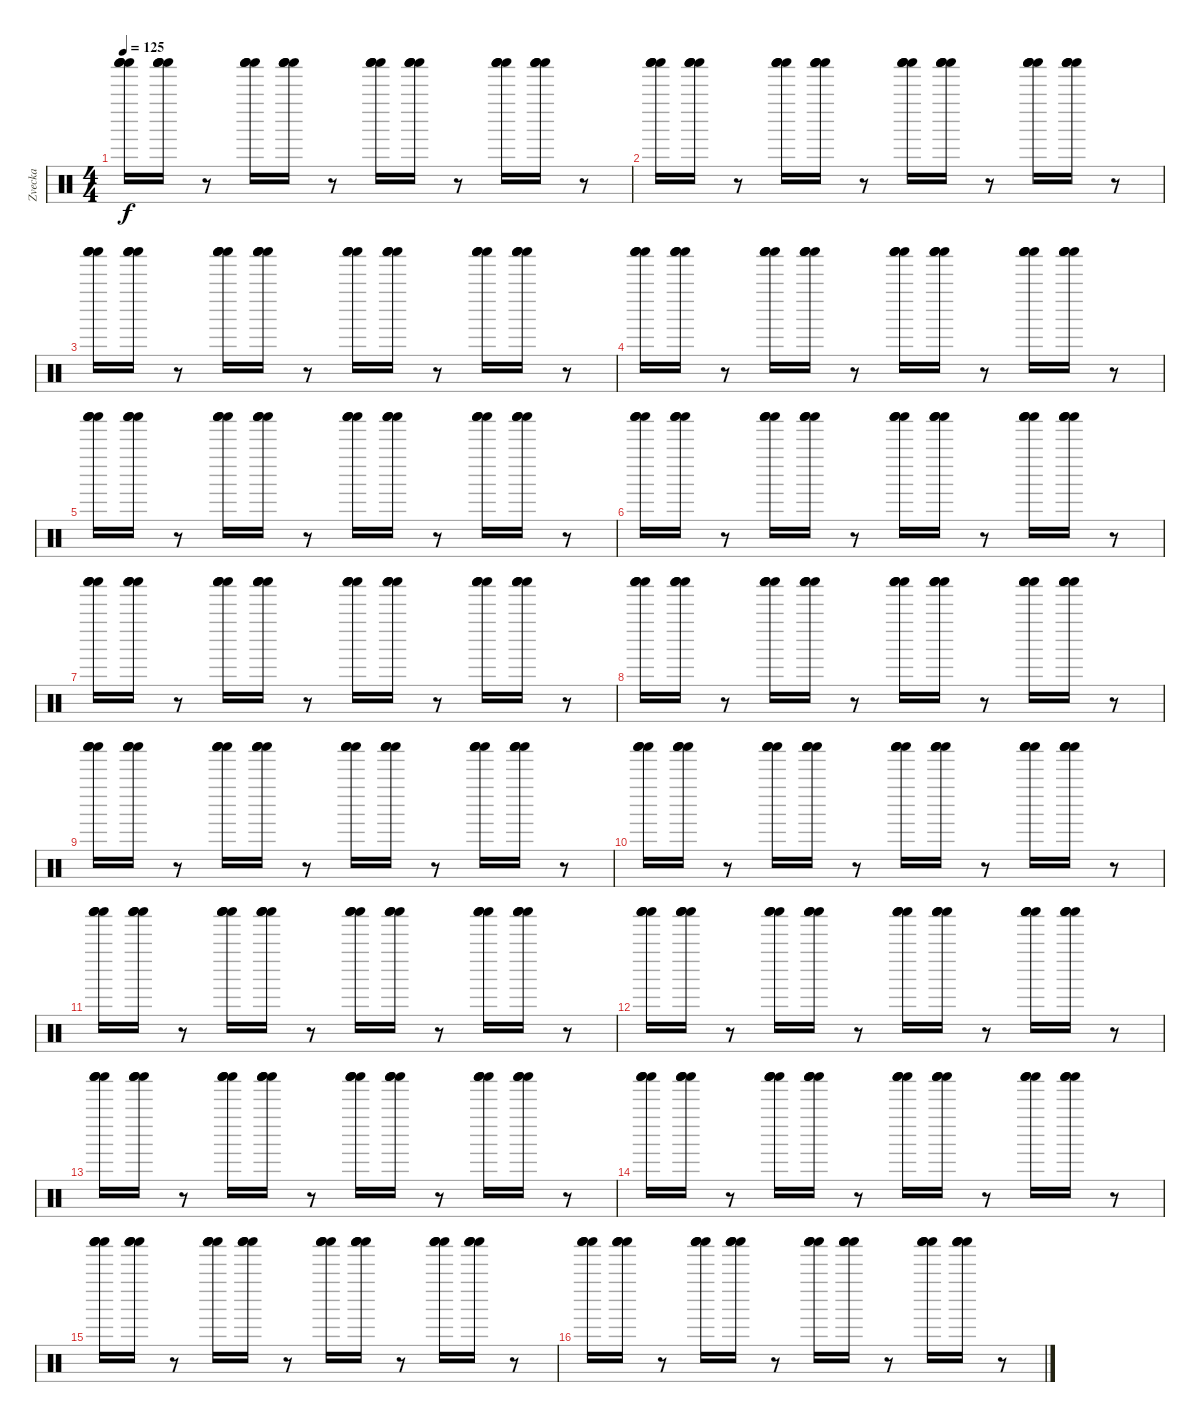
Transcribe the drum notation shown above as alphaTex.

\track ("Zvecka " "Zvecka ") {instrument percussion}
\staff {score}
\articulation defaults
\ts (4 4)
\tempo 125
\clef neutral
\ks c
("Shaker (hit)" "Shaker (hit)" "Shaker (hit)" "Shaker (hit)").16{dy f} ("Shaker (hit)" "Shaker (hit)" "Shaker (hit)" "Shaker (hit)").16 r.8 ("Shaker (hit)" "Shaker (hit)" "Shaker (hit)" "Shaker (hit)").16 ("Shaker (hit)" "Shaker (hit)" "Shaker (hit)" "Shaker (hit)").16 r.8 ("Shaker (hit)" "Shaker (hit)" "Shaker (hit)" "Shaker (hit)").16 ("Shaker (hit)" "Shaker (hit)" "Shaker (hit)" "Shaker (hit)").16 r.8 ("Shaker (hit)" "Shaker (hit)" "Shaker (hit)" "Shaker (hit)").16 ("Shaker (hit)" "Shaker (hit)" "Shaker (hit)" "Shaker (hit)").16 r.8 |
("Shaker (hit)" "Shaker (hit)" "Shaker (hit)" "Shaker (hit)").16 ("Shaker (hit)" "Shaker (hit)" "Shaker (hit)" "Shaker (hit)").16 r.8 ("Shaker (hit)" "Shaker (hit)" "Shaker (hit)" "Shaker (hit)").16 ("Shaker (hit)" "Shaker (hit)" "Shaker (hit)" "Shaker (hit)").16 r.8 ("Shaker (hit)" "Shaker (hit)" "Shaker (hit)" "Shaker (hit)").16 ("Shaker (hit)" "Shaker (hit)" "Shaker (hit)" "Shaker (hit)").16 r.8 ("Shaker (hit)" "Shaker (hit)" "Shaker (hit)" "Shaker (hit)").16 ("Shaker (hit)" "Shaker (hit)" "Shaker (hit)" "Shaker (hit)").16 r.8 |
("Shaker (hit)" "Shaker (hit)" "Shaker (hit)" "Shaker (hit)").16 ("Shaker (hit)" "Shaker (hit)" "Shaker (hit)" "Shaker (hit)").16 r.8 ("Shaker (hit)" "Shaker (hit)" "Shaker (hit)" "Shaker (hit)").16 ("Shaker (hit)" "Shaker (hit)" "Shaker (hit)" "Shaker (hit)").16 r.8 ("Shaker (hit)" "Shaker (hit)" "Shaker (hit)" "Shaker (hit)").16 ("Shaker (hit)" "Shaker (hit)" "Shaker (hit)" "Shaker (hit)").16 r.8 ("Shaker (hit)" "Shaker (hit)" "Shaker (hit)" "Shaker (hit)").16 ("Shaker (hit)" "Shaker (hit)" "Shaker (hit)" "Shaker (hit)").16 r.8 |
("Shaker (hit)" "Shaker (hit)" "Shaker (hit)" "Shaker (hit)").16 ("Shaker (hit)" "Shaker (hit)" "Shaker (hit)" "Shaker (hit)").16 r.8 ("Shaker (hit)" "Shaker (hit)" "Shaker (hit)" "Shaker (hit)").16 ("Shaker (hit)" "Shaker (hit)" "Shaker (hit)" "Shaker (hit)").16 r.8 ("Shaker (hit)" "Shaker (hit)" "Shaker (hit)" "Shaker (hit)").16 ("Shaker (hit)" "Shaker (hit)" "Shaker (hit)" "Shaker (hit)").16 r.8 ("Shaker (hit)" "Shaker (hit)" "Shaker (hit)" "Shaker (hit)").16 ("Shaker (hit)" "Shaker (hit)" "Shaker (hit)" "Shaker (hit)").16 r.8 |
("Shaker (hit)" "Shaker (hit)" "Shaker (hit)" "Shaker (hit)").16 ("Shaker (hit)" "Shaker (hit)" "Shaker (hit)" "Shaker (hit)").16 r.8 ("Shaker (hit)" "Shaker (hit)" "Shaker (hit)" "Shaker (hit)").16 ("Shaker (hit)" "Shaker (hit)" "Shaker (hit)" "Shaker (hit)").16 r.8 ("Shaker (hit)" "Shaker (hit)" "Shaker (hit)" "Shaker (hit)").16 ("Shaker (hit)" "Shaker (hit)" "Shaker (hit)" "Shaker (hit)").16 r.8 ("Shaker (hit)" "Shaker (hit)" "Shaker (hit)" "Shaker (hit)").16 ("Shaker (hit)" "Shaker (hit)" "Shaker (hit)" "Shaker (hit)").16 r.8 |
("Shaker (hit)" "Shaker (hit)" "Shaker (hit)" "Shaker (hit)").16 ("Shaker (hit)" "Shaker (hit)" "Shaker (hit)" "Shaker (hit)").16 r.8 ("Shaker (hit)" "Shaker (hit)" "Shaker (hit)" "Shaker (hit)").16 ("Shaker (hit)" "Shaker (hit)" "Shaker (hit)" "Shaker (hit)").16 r.8 ("Shaker (hit)" "Shaker (hit)" "Shaker (hit)" "Shaker (hit)").16 ("Shaker (hit)" "Shaker (hit)" "Shaker (hit)" "Shaker (hit)").16 r.8 ("Shaker (hit)" "Shaker (hit)" "Shaker (hit)" "Shaker (hit)").16 ("Shaker (hit)" "Shaker (hit)" "Shaker (hit)" "Shaker (hit)").16 r.8 |
("Shaker (hit)" "Shaker (hit)" "Shaker (hit)" "Shaker (hit)").16 ("Shaker (hit)" "Shaker (hit)" "Shaker (hit)" "Shaker (hit)").16 r.8 ("Shaker (hit)" "Shaker (hit)" "Shaker (hit)" "Shaker (hit)").16 ("Shaker (hit)" "Shaker (hit)" "Shaker (hit)" "Shaker (hit)").16 r.8 ("Shaker (hit)" "Shaker (hit)" "Shaker (hit)" "Shaker (hit)").16 ("Shaker (hit)" "Shaker (hit)" "Shaker (hit)" "Shaker (hit)").16 r.8 ("Shaker (hit)" "Shaker (hit)" "Shaker (hit)" "Shaker (hit)").16 ("Shaker (hit)" "Shaker (hit)" "Shaker (hit)" "Shaker (hit)").16 r.8 |
("Shaker (hit)" "Shaker (hit)" "Shaker (hit)" "Shaker (hit)").16 ("Shaker (hit)" "Shaker (hit)" "Shaker (hit)" "Shaker (hit)").16 r.8 ("Shaker (hit)" "Shaker (hit)" "Shaker (hit)" "Shaker (hit)").16 ("Shaker (hit)" "Shaker (hit)" "Shaker (hit)" "Shaker (hit)").16 r.8 ("Shaker (hit)" "Shaker (hit)" "Shaker (hit)" "Shaker (hit)").16 ("Shaker (hit)" "Shaker (hit)" "Shaker (hit)" "Shaker (hit)").16 r.8 ("Shaker (hit)" "Shaker (hit)" "Shaker (hit)" "Shaker (hit)").16 ("Shaker (hit)" "Shaker (hit)" "Shaker (hit)" "Shaker (hit)").16 r.8 |
("Shaker (hit)" "Shaker (hit)" "Shaker (hit)" "Shaker (hit)").16 ("Shaker (hit)" "Shaker (hit)" "Shaker (hit)" "Shaker (hit)").16 r.8 ("Shaker (hit)" "Shaker (hit)" "Shaker (hit)" "Shaker (hit)").16 ("Shaker (hit)" "Shaker (hit)" "Shaker (hit)" "Shaker (hit)").16 r.8 ("Shaker (hit)" "Shaker (hit)" "Shaker (hit)" "Shaker (hit)").16 ("Shaker (hit)" "Shaker (hit)" "Shaker (hit)" "Shaker (hit)").16 r.8 ("Shaker (hit)" "Shaker (hit)" "Shaker (hit)" "Shaker (hit)").16 ("Shaker (hit)" "Shaker (hit)" "Shaker (hit)" "Shaker (hit)").16 r.8 |
("Shaker (hit)" "Shaker (hit)" "Shaker (hit)" "Shaker (hit)").16 ("Shaker (hit)" "Shaker (hit)" "Shaker (hit)" "Shaker (hit)").16 r.8 ("Shaker (hit)" "Shaker (hit)" "Shaker (hit)" "Shaker (hit)").16 ("Shaker (hit)" "Shaker (hit)" "Shaker (hit)" "Shaker (hit)").16 r.8 ("Shaker (hit)" "Shaker (hit)" "Shaker (hit)" "Shaker (hit)").16 ("Shaker (hit)" "Shaker (hit)" "Shaker (hit)" "Shaker (hit)").16 r.8 ("Shaker (hit)" "Shaker (hit)" "Shaker (hit)" "Shaker (hit)").16 ("Shaker (hit)" "Shaker (hit)" "Shaker (hit)" "Shaker (hit)").16 r.8 |
("Shaker (hit)" "Shaker (hit)" "Shaker (hit)" "Shaker (hit)").16 ("Shaker (hit)" "Shaker (hit)" "Shaker (hit)" "Shaker (hit)").16 r.8 ("Shaker (hit)" "Shaker (hit)" "Shaker (hit)" "Shaker (hit)").16 ("Shaker (hit)" "Shaker (hit)" "Shaker (hit)" "Shaker (hit)").16 r.8 ("Shaker (hit)" "Shaker (hit)" "Shaker (hit)" "Shaker (hit)").16 ("Shaker (hit)" "Shaker (hit)" "Shaker (hit)" "Shaker (hit)").16 r.8 ("Shaker (hit)" "Shaker (hit)" "Shaker (hit)" "Shaker (hit)").16 ("Shaker (hit)" "Shaker (hit)" "Shaker (hit)" "Shaker (hit)").16 r.8 |
("Shaker (hit)" "Shaker (hit)" "Shaker (hit)" "Shaker (hit)").16 ("Shaker (hit)" "Shaker (hit)" "Shaker (hit)" "Shaker (hit)").16 r.8 ("Shaker (hit)" "Shaker (hit)" "Shaker (hit)" "Shaker (hit)").16 ("Shaker (hit)" "Shaker (hit)" "Shaker (hit)" "Shaker (hit)").16 r.8 ("Shaker (hit)" "Shaker (hit)" "Shaker (hit)" "Shaker (hit)").16 ("Shaker (hit)" "Shaker (hit)" "Shaker (hit)" "Shaker (hit)").16 r.8 ("Shaker (hit)" "Shaker (hit)" "Shaker (hit)" "Shaker (hit)").16 ("Shaker (hit)" "Shaker (hit)" "Shaker (hit)" "Shaker (hit)").16 r.8 |
("Shaker (hit)" "Shaker (hit)" "Shaker (hit)" "Shaker (hit)").16 ("Shaker (hit)" "Shaker (hit)" "Shaker (hit)" "Shaker (hit)").16 r.8 ("Shaker (hit)" "Shaker (hit)" "Shaker (hit)" "Shaker (hit)").16 ("Shaker (hit)" "Shaker (hit)" "Shaker (hit)" "Shaker (hit)").16 r.8 ("Shaker (hit)" "Shaker (hit)" "Shaker (hit)" "Shaker (hit)").16 ("Shaker (hit)" "Shaker (hit)" "Shaker (hit)" "Shaker (hit)").16 r.8 ("Shaker (hit)" "Shaker (hit)" "Shaker (hit)" "Shaker (hit)").16 ("Shaker (hit)" "Shaker (hit)" "Shaker (hit)" "Shaker (hit)").16 r.8 |
("Shaker (hit)" "Shaker (hit)" "Shaker (hit)" "Shaker (hit)").16 ("Shaker (hit)" "Shaker (hit)" "Shaker (hit)" "Shaker (hit)").16 r.8 ("Shaker (hit)" "Shaker (hit)" "Shaker (hit)" "Shaker (hit)").16 ("Shaker (hit)" "Shaker (hit)" "Shaker (hit)" "Shaker (hit)").16 r.8 ("Shaker (hit)" "Shaker (hit)" "Shaker (hit)" "Shaker (hit)").16 ("Shaker (hit)" "Shaker (hit)" "Shaker (hit)" "Shaker (hit)").16 r.8 ("Shaker (hit)" "Shaker (hit)" "Shaker (hit)" "Shaker (hit)").16 ("Shaker (hit)" "Shaker (hit)" "Shaker (hit)" "Shaker (hit)").16 r.8 |
("Shaker (hit)" "Shaker (hit)" "Shaker (hit)" "Shaker (hit)").16 ("Shaker (hit)" "Shaker (hit)" "Shaker (hit)" "Shaker (hit)").16 r.8 ("Shaker (hit)" "Shaker (hit)" "Shaker (hit)" "Shaker (hit)").16 ("Shaker (hit)" "Shaker (hit)" "Shaker (hit)" "Shaker (hit)").16 r.8 ("Shaker (hit)" "Shaker (hit)" "Shaker (hit)" "Shaker (hit)").16 ("Shaker (hit)" "Shaker (hit)" "Shaker (hit)" "Shaker (hit)").16 r.8 ("Shaker (hit)" "Shaker (hit)" "Shaker (hit)" "Shaker (hit)").16 ("Shaker (hit)" "Shaker (hit)" "Shaker (hit)" "Shaker (hit)").16 r.8 |
("Shaker (hit)" "Shaker (hit)" "Shaker (hit)" "Shaker (hit)").16 ("Shaker (hit)" "Shaker (hit)" "Shaker (hit)" "Shaker (hit)").16 r.8 ("Shaker (hit)" "Shaker (hit)" "Shaker (hit)" "Shaker (hit)").16 ("Shaker (hit)" "Shaker (hit)" "Shaker (hit)" "Shaker (hit)").16 r.8 ("Shaker (hit)" "Shaker (hit)" "Shaker (hit)" "Shaker (hit)").16 ("Shaker (hit)" "Shaker (hit)" "Shaker (hit)" "Shaker (hit)").16 r.8 ("Shaker (hit)" "Shaker (hit)" "Shaker (hit)" "Shaker (hit)").16 ("Shaker (hit)" "Shaker (hit)" "Shaker (hit)" "Shaker (hit)").16 r.8
